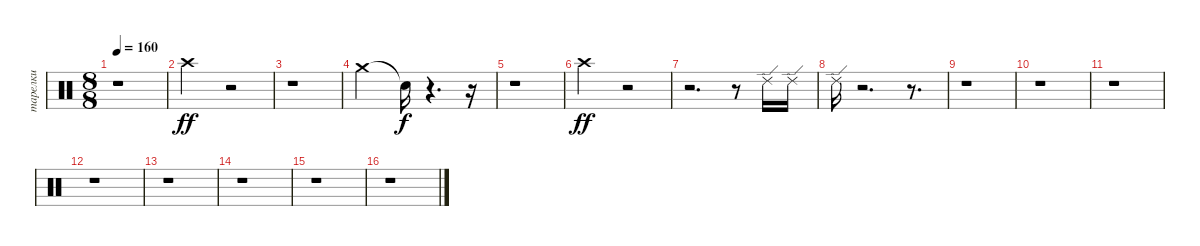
\track ("тарелки" "тарелки") {instrument percussion}
\staff {score}
\articulation defaults
\ts (8 8)
\tempo 160
\clef neutral
\ks c
r.1{dy f} |
"Crash high (hit)".2{dy ff} r.2 |
r.1 |
"Crash medium (hit)".2 "Snare (hit)"{t}.16{dy f} r.4{d} r.16 |
r.1 |
"Crash high (hit)".2{dy ff} r.2 |
r.2{d} r.8 "Ride (edge) 2".16 "Ride (edge) 2".16 |
"Ride (edge) 2".16 r.2{d} r.8{d} |
r.1 |
r.1 |
r.1 |
r.1 |
r.1 |
r.1 |
r.1 |
r.1
